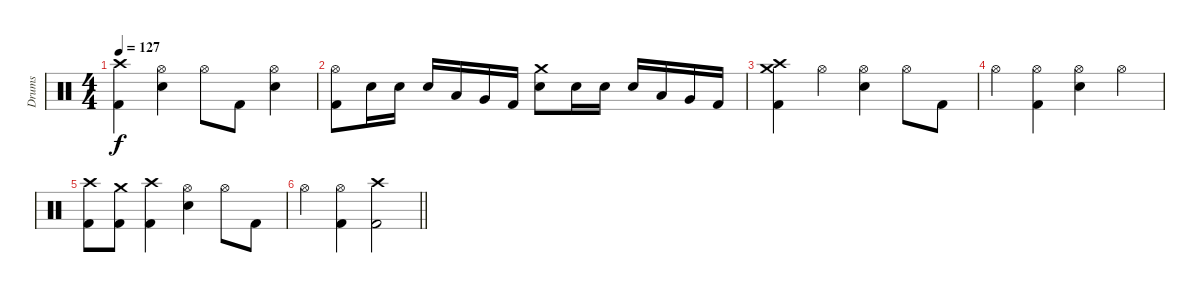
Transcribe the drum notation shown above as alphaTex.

\track ("Drums" "Drums") {instrument percussion}
\staff {score}
\articulation defaults
\ts (4 4)
\tempo 127
\clef neutral
\ks c
("Crash high (hit)" "Kick (hit) 2").4{dy f} ("Hi-Hat (open)" "Electric Snare (hit)").4 "Hi-Hat (open)".8 "Kick (hit) 2".8 ("Hi-Hat (open)" "Electric Snare (hit)").4 |
("Hi-Hat (open)" "Kick (hit) 2").8 "Electric Snare (hit)".16 "Electric Snare (hit)".16 "Electric Snare (hit)".16 "Low Tom (hit)".16 "Very Low Tom (hit)".16 "Kick (hit) 2".16 ("Crash medium (hit)" "Electric Snare (hit)").8 "Electric Snare (hit)".16 "Electric Snare (hit)".16 "Electric Snare (hit)".16 "Low Tom (hit)".16 "Very Low Tom (hit)".16 "Kick (hit) 2".16 |
("Crash high (hit)" "Crash medium (hit)" "Kick (hit) 2").4 "Hi-Hat (open)".4 ("Hi-Hat (open)" "Electric Snare (hit)").4 "Hi-Hat (open)".8 "Kick (hit) 2".8 |
"Hi-Hat (open)".4 ("Hi-Hat (open)" "Kick (hit) 2").4 ("Hi-Hat (open)" "Electric Snare (hit)").4 "Hi-Hat (open)".4 |
("Crash high (hit)" "Kick (hit) 2").8 ("Crash medium (hit)" "Kick (hit) 2").8 ("Crash high (hit)" "Kick (hit) 2").4 ("Hi-Hat (open)" "Electric Snare (hit)").4 "Hi-Hat (open)".8 "Kick (hit) 2".8 |
\barLineRight lightlight "Hi-Hat (open)".4
("Hi-Hat (open)" "Kick (hit) 2").4 ("Crash high (hit)" "Kick (hit) 2").2
